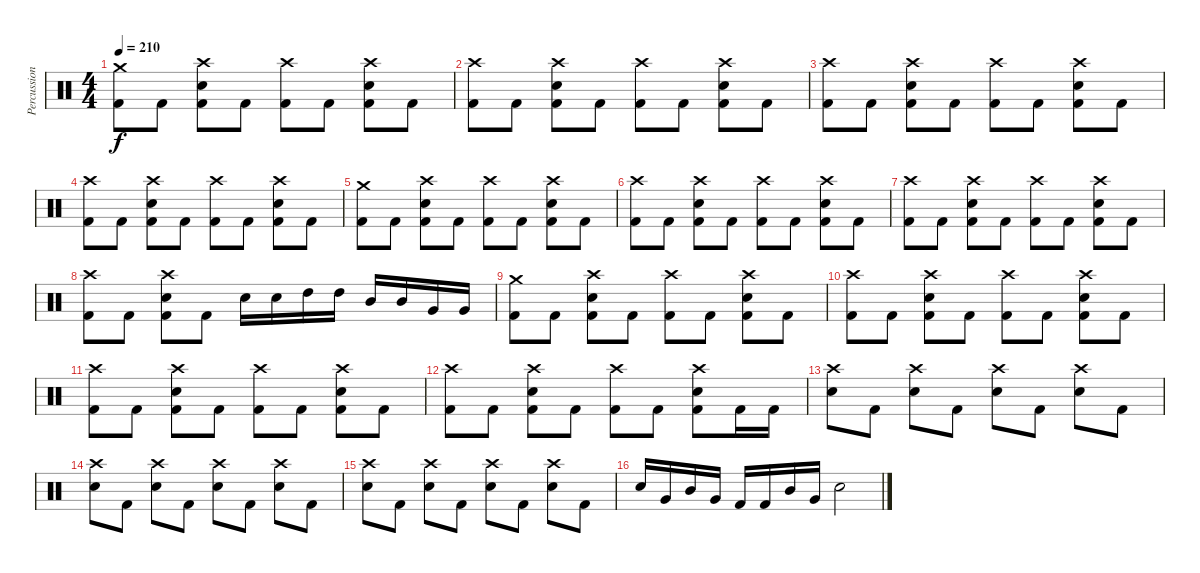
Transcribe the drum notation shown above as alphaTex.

\track ("Percussions" "Percussion") {instrument percussion}
\staff {score}
\articulation defaults
\ts (4 4)
\tempo 210
\clef neutral
\ks c
("Kick (hit) 2" "Crash medium (hit)").8{dy f} "Kick (hit) 2".8 ("Kick (hit) 2" "Electric Snare (hit)" "Crash high (hit)").8 "Kick (hit) 2".8 ("Kick (hit) 2" "Crash high (hit)").8 "Kick (hit) 2".8 ("Kick (hit) 2" "Electric Snare (hit)" "Crash high (hit)").8 "Kick (hit) 2".8 |
("Kick (hit) 2" "Crash high (hit)").8 "Kick (hit) 2".8 ("Kick (hit) 2" "Electric Snare (hit)" "Crash high (hit)").8 "Kick (hit) 2".8 ("Kick (hit) 2" "Crash high (hit)").8 "Kick (hit) 2".8 ("Kick (hit) 2" "Electric Snare (hit)" "Crash high (hit)").8 "Kick (hit) 2".8 |
("Kick (hit) 2" "Crash high (hit)").8 "Kick (hit) 2".8 ("Kick (hit) 2" "Electric Snare (hit)" "Crash high (hit)").8 "Kick (hit) 2".8 ("Kick (hit) 2" "Crash high (hit)").8 "Kick (hit) 2".8 ("Kick (hit) 2" "Electric Snare (hit)" "Crash high (hit)").8 "Kick (hit) 2".8 |
("Kick (hit) 2" "Crash high (hit)").8 "Kick (hit) 2".8 ("Kick (hit) 2" "Electric Snare (hit)" "Crash high (hit)").8 "Kick (hit) 2".8 ("Kick (hit) 2" "Crash high (hit)").8 "Kick (hit) 2".8 ("Kick (hit) 2" "Electric Snare (hit)" "Crash high (hit)").8 "Kick (hit) 2".8 |
("Kick (hit) 2" "Crash medium (hit)").8 "Kick (hit) 2".8 ("Kick (hit) 2" "Electric Snare (hit)" "Crash high (hit)").8 "Kick (hit) 2".8 ("Kick (hit) 2" "Crash high (hit)").8 "Kick (hit) 2".8 ("Kick (hit) 2" "Electric Snare (hit)" "Crash high (hit)").8 "Kick (hit) 2".8 |
("Kick (hit) 2" "Crash high (hit)").8 "Kick (hit) 2".8 ("Kick (hit) 2" "Electric Snare (hit)" "Crash high (hit)").8 "Kick (hit) 2".8 ("Kick (hit) 2" "Crash high (hit)").8 "Kick (hit) 2".8 ("Kick (hit) 2" "Electric Snare (hit)" "Crash high (hit)").8 "Kick (hit) 2".8 |
("Kick (hit) 2" "Crash high (hit)").8 "Kick (hit) 2".8 ("Kick (hit) 2" "Electric Snare (hit)" "Crash high (hit)").8 "Kick (hit) 2".8 ("Kick (hit) 2" "Crash high (hit)").8 "Kick (hit) 2".8 ("Kick (hit) 2" "Electric Snare (hit)" "Crash high (hit)").8 "Kick (hit) 2".8 |
("Kick (hit) 2" "Crash high (hit)").8 "Kick (hit) 2".8 ("Kick (hit) 2" "Electric Snare (hit)" "Crash high (hit)").8 "Kick (hit) 2".8 "Electric Snare (hit)".16 "Electric Snare (hit)".16 "High Tom (hit)".16 "High Tom (hit)".16 "Mid Tom (hit)".16 "Mid Tom (hit)".16 "Very Low Tom (hit)".16 "Very Low Tom (hit)".16 |
("Kick (hit) 2" "Crash medium (hit)").8 "Kick (hit) 2".8 ("Kick (hit) 2" "Electric Snare (hit)" "Crash high (hit)").8 "Kick (hit) 2".8 ("Kick (hit) 2" "Crash high (hit)").8 "Kick (hit) 2".8 ("Kick (hit) 2" "Electric Snare (hit)" "Crash high (hit)").8 "Kick (hit) 2".8 |
("Kick (hit) 2" "Crash high (hit)").8 "Kick (hit) 2".8 ("Kick (hit) 2" "Electric Snare (hit)" "Crash high (hit)").8 "Kick (hit) 2".8 ("Kick (hit) 2" "Crash high (hit)").8 "Kick (hit) 2".8 ("Kick (hit) 2" "Electric Snare (hit)" "Crash high (hit)").8 "Kick (hit) 2".8 |
("Kick (hit) 2" "Crash high (hit)").8 "Kick (hit) 2".8 ("Kick (hit) 2" "Electric Snare (hit)" "Crash high (hit)").8 "Kick (hit) 2".8 ("Kick (hit) 2" "Crash high (hit)").8 "Kick (hit) 2".8 ("Kick (hit) 2" "Electric Snare (hit)" "Crash high (hit)").8 "Kick (hit) 2".8 |
("Kick (hit) 2" "Crash high (hit)").8 "Kick (hit) 2".8 ("Kick (hit) 2" "Electric Snare (hit)" "Crash high (hit)").8 "Kick (hit) 2".8 ("Kick (hit) 2" "Crash high (hit)").8 "Kick (hit) 2".8 ("Kick (hit) 2" "Electric Snare (hit)" "Crash high (hit)").8 "Kick (hit) 2".16 "Kick (hit) 2".16 |
("Electric Snare (hit)" "Crash high (hit)").8 "Kick (hit) 2".8 ("Electric Snare (hit)" "Crash high (hit)").8 "Kick (hit) 2".8 ("Electric Snare (hit)" "Crash high (hit)").8 "Kick (hit) 2".8 ("Electric Snare (hit)" "Crash high (hit)").8 "Kick (hit) 2".8 |
("Electric Snare (hit)" "Crash high (hit)").8 "Kick (hit) 2".8 ("Electric Snare (hit)" "Crash high (hit)").8 "Kick (hit) 2".8 ("Electric Snare (hit)" "Crash high (hit)").8 "Kick (hit) 2".8 ("Electric Snare (hit)" "Crash high (hit)").8 "Kick (hit) 2".8 |
("Electric Snare (hit)" "Crash high (hit)").8 "Kick (hit) 2".8 ("Electric Snare (hit)" "Crash high (hit)").8 "Kick (hit) 2".8 ("Electric Snare (hit)" "Crash high (hit)").8 "Kick (hit) 2".8 ("Electric Snare (hit)" "Crash high (hit)").8 "Kick (hit) 2".8 |
"Electric Snare (hit)".16 "Very Low Tom (hit)".16 "Mid Tom (hit)".16 "Very Low Tom (hit)".16 "Kick (hit) 2".16 "Kick (hit) 2".16 "Mid Tom (hit)".16 "Very Low Tom (hit)".16 "Electric Snare (hit)".2
